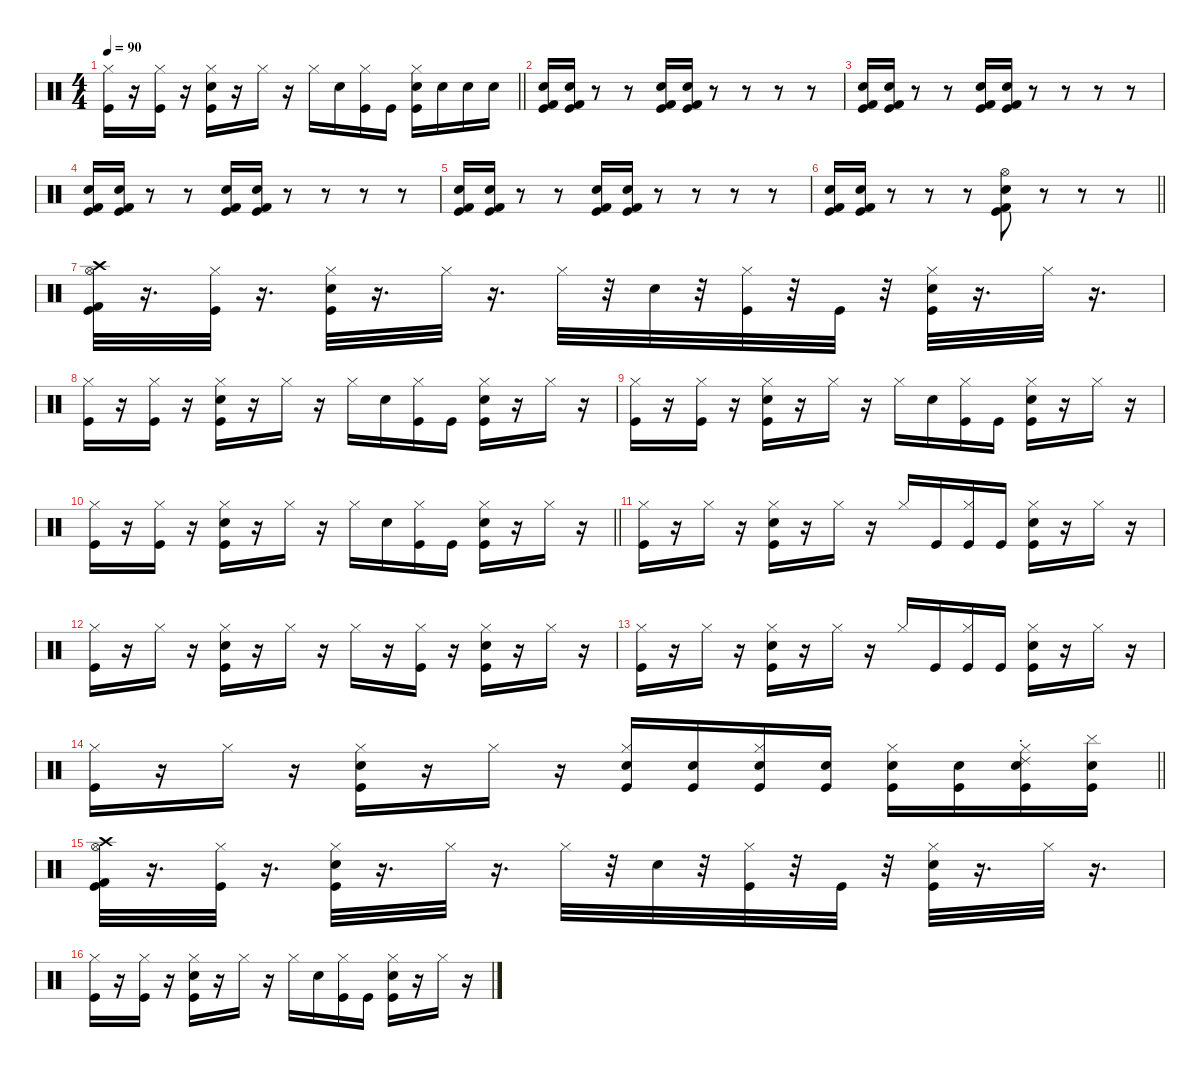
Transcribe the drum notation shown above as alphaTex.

\defaultSystemsLayout 4
\hideDynamics
\bracketExtendMode nobrackets
\singleTrackTrackNamePolicy hidden
\multiTrackTrackNamePolicy hidden
\otherSystemsTrackNameOrientation horizontal
\track ("Slagverk" "drm.") {instrument percussion}
\staff {score}
\articulation defaults
\ts (4 4)
\tempo 90
\clef neutral
\barLineRight lightlight
\ks c
("Kick (hit)" "Hi-Hat (closed)").16{dy f beam Down} r.16{beam Down} ("Kick (hit)" "Hi-Hat (closed)").16{beam Down} r.16{beam Down} ("Kick (hit)" "Hi-Hat (closed)" "Snare (hit) 2").16{beam Down} r.16{beam Down} "Hi-Hat (closed)".16{beam Down} r.16{beam Down} "Hi-Hat (closed)".16{beam Down} "Snare (hit) 2".16{beam Down} ("Kick (hit)" "Hi-Hat (closed)").16{beam Down} "Kick (hit)".16{beam Down} ("Kick (hit)" "Hi-Hat (closed)" "Snare (hit) 2").16{beam Down} "Snare (hit) 2".16{beam Down} "Snare (hit) 2".16{beam Down} "Snare (hit) 2".16{beam Down} |
("Snare (hit) 2" "Kick (hit)" "Kick (hit) 2").16{beam Up} ("Snare (hit) 2" "Kick (hit)" "Kick (hit) 2").16{beam Up} r.8{beam Up} r.8{beam Up} ("Snare (hit) 2" "Kick (hit)" "Kick (hit) 2").16{beam Up} ("Snare (hit) 2" "Kick (hit)" "Kick (hit) 2").16{beam Up} r.8{beam Up} r.8{beam Up} r.8{beam Up} r.8{beam Up} |
("Snare (hit) 2" "Kick (hit)" "Kick (hit) 2").16{beam Up} ("Snare (hit) 2" "Kick (hit)" "Kick (hit) 2").16{beam Up} r.8{beam Up} r.8{beam Up} ("Snare (hit) 2" "Kick (hit)" "Kick (hit) 2").16{beam Up} ("Snare (hit) 2" "Kick (hit)" "Kick (hit) 2").16{beam Up} r.8{beam Up} r.8{beam Up} r.8{beam Up} r.8{beam Up} |
("Snare (hit) 2" "Kick (hit)" "Kick (hit) 2").16{beam Up} ("Snare (hit) 2" "Kick (hit)" "Kick (hit) 2").16{beam Up} r.8{beam Up} r.8{beam Up} ("Snare (hit) 2" "Kick (hit)" "Kick (hit) 2").16{beam Up} ("Snare (hit) 2" "Kick (hit)" "Kick (hit) 2").16{beam Up} r.8{beam Up} r.8{beam Up} r.8{beam Up} r.8{beam Up} |
("Snare (hit) 2" "Kick (hit)" "Kick (hit) 2").16{beam Up} ("Snare (hit) 2" "Kick (hit)" "Kick (hit) 2").16{beam Up} r.8{beam Up} r.8{beam Up} ("Snare (hit) 2" "Kick (hit)" "Kick (hit) 2").16{beam Up} ("Snare (hit) 2" "Kick (hit)" "Kick (hit) 2").16{beam Up} r.8{beam Up} r.8{beam Up} r.8{beam Up} r.8{beam Up} |
\barLineRight lightlight
("Snare (hit) 2" "Kick (hit)" "Kick (hit) 2").16{beam Up} ("Snare (hit) 2" "Kick (hit)" "Kick (hit) 2").16{beam Up} r.8{beam Up} r.8{beam Up} r.8{beam Up} ("Hi-Hat (open)" "Kick (hit)" "Snare (hit) 2" "Kick (hit) 2").8{beam Down} r.8{beam Down} r.8{beam Down} r.8{beam Down} |
("Kick (hit)" "Hi-Hat (open)" "Crash high (hit)" "Kick (hit) 2").32{dy fff beam Down} r.16{d beam Down} ("Kick (hit)" "Hi-Hat (closed)").32{beam Down} r.16{d beam Down} ("Snare (hit) 2" "Kick (hit)" "Hi-Hat (closed)").32{beam Down} r.16{d beam Down} "Hi-Hat (closed)".32{beam Down} r.16{d beam Down} "Hi-Hat (closed)".32{dy f beam Down} r.32{beam Down} "Snare (hit) 2".32{beam Down} r.32{beam Down} ("Hi-Hat (closed)" "Kick (hit)").32{beam Down} r.32{beam Down} "Kick (hit)".32{beam Down} r.32{beam Down} ("Hi-Hat (closed)" "Snare (hit) 2" "Kick (hit)").32{beam Down} r.16{d beam Down} "Hi-Hat (closed)".32{beam Down} r.16{d beam Down} |
("Kick (hit)" "Hi-Hat (closed)").16{beam Down} r.16{beam Down} ("Kick (hit)" "Hi-Hat (closed)").16{beam Down} r.16{beam Down} ("Kick (hit)" "Hi-Hat (closed)" "Snare (hit) 2").16{beam Down} r.16{beam Down} "Hi-Hat (closed)".16{beam Down} r.16{beam Down} "Hi-Hat (closed)".16{beam Down} "Snare (hit) 2".16{beam Down} ("Kick (hit)" "Hi-Hat (closed)").16{beam Down} "Kick (hit)".16{beam Down} ("Kick (hit)" "Hi-Hat (closed)" "Snare (hit) 2").16{beam Down} r.16{beam Down} "Hi-Hat (closed)".16{beam Down} r.16{beam Down} |
("Kick (hit)" "Hi-Hat (closed)").16{beam Down} r.16{beam Down} ("Kick (hit)" "Hi-Hat (closed)").16{beam Down} r.16{beam Down} ("Kick (hit)" "Hi-Hat (closed)" "Snare (hit) 2").16{beam Down} r.16{beam Down} "Hi-Hat (closed)".16{beam Down} r.16{beam Down} "Hi-Hat (closed)".16{beam Down} "Snare (hit) 2".16{beam Down} ("Kick (hit)" "Hi-Hat (closed)").16{beam Down} "Kick (hit)".16{beam Down} ("Kick (hit)" "Hi-Hat (closed)" "Snare (hit) 2").16{beam Down} r.16{beam Down} "Hi-Hat (closed)".16{beam Down} r.16{beam Down} |
\barLineRight lightlight
("Kick (hit)" "Hi-Hat (closed)").16{beam Down} r.16{beam Down} ("Kick (hit)" "Hi-Hat (closed)").16{beam Down} r.16{beam Down} ("Kick (hit)" "Hi-Hat (closed)" "Snare (hit) 2").16{beam Down} r.16{beam Down} "Hi-Hat (closed)".16{beam Down} r.16{beam Down} "Hi-Hat (closed)".16{beam Down} "Snare (hit) 2".16{beam Down} ("Kick (hit)" "Hi-Hat (closed)").16{beam Down} "Kick (hit)".16{beam Down} ("Kick (hit)" "Hi-Hat (closed)" "Snare (hit) 2").16{beam Down} r.16{beam Down} "Hi-Hat (closed)".16{beam Down} r.16{beam Down} |
("Kick (hit)" "Hi-Hat (closed)").16{beam Down} r.16{beam Down} "Hi-Hat (closed)".16{beam Down} r.16{beam Down} ("Kick (hit)" "Hi-Hat (closed)" "Snare (hit) 2").16{beam Down} r.16{beam Down} "Hi-Hat (closed)".16{beam Down} r.16{beam Down} "Hi-Hat (closed)".16{beam Up} "Kick (hit)".16{beam Up} ("Kick (hit)" "Hi-Hat (closed)").16{beam Up} "Kick (hit)".16{beam Up} ("Kick (hit)" "Hi-Hat (closed)" "Snare (hit) 2").16{beam Down} r.16{beam Down} "Hi-Hat (closed)".16{beam Down} r.16{beam Down} |
("Kick (hit)" "Hi-Hat (closed)").16{beam Down} r.16{beam Down} "Hi-Hat (closed)".16{beam Down} r.16{beam Down} ("Kick (hit)" "Hi-Hat (closed)" "Snare (hit) 2").16{beam Down} r.16{beam Down} "Hi-Hat (closed)".16{beam Down} r.16{beam Down} "Hi-Hat (closed)".16{beam Down} r.16{beam Down} ("Kick (hit)" "Hi-Hat (closed)").16{beam Down} r.16{beam Down} ("Kick (hit)" "Hi-Hat (closed)" "Snare (hit) 2").16{beam Down} r.16{beam Down} "Hi-Hat (closed)".16{beam Down} r.16{beam Down} |
("Kick (hit)" "Hi-Hat (closed)").16{beam Down} r.16{beam Down} "Hi-Hat (closed)".16{beam Down} r.16{beam Down} ("Kick (hit)" "Hi-Hat (closed)" "Snare (hit) 2").16{beam Down} r.16{beam Down} "Hi-Hat (closed)".16{beam Down} r.16{beam Down} "Hi-Hat (closed)".16{beam Up} "Kick (hit)".16{beam Up} ("Kick (hit)" "Hi-Hat (closed)").16{beam Up} "Kick (hit)".16{beam Up} ("Kick (hit)" "Hi-Hat (closed)" "Snare (hit) 2").16{beam Down} r.16{beam Down} "Hi-Hat (closed)".16{beam Down} r.16{beam Down} |
\barLineRight lightlight
("Kick (hit)" "Hi-Hat (closed)").16{beam Down} r.16{beam Down} "Hi-Hat (closed)".16{beam Down} r.16{beam Down} ("Kick (hit)" "Hi-Hat (closed)" "Snare (hit) 2").16{beam Down} r.16{beam Down} "Hi-Hat (closed)".16{beam Down} r.16{beam Down} ("Kick (hit)" "Hi-Hat (closed)" "Snare (hit) 2").16{dy fff beam Up} ("Kick (hit)" "Snare (hit) 2").16{beam Up} ("Kick (hit)" "Hi-Hat (closed)" "Snare (hit) 2").16{beam Up} ("Kick (hit)" "Snare (hit) 2").16{beam Up} ("Kick (hit)" "Hi-Hat (closed)" "Snare (hit) 2").16{beam Down} ("Kick (hit)" "Snare (hit) 2").16{beam Down} ("Kick (hit)" "Hi-Hat (closed)" "Snare (hit) 2" "Ride (choke) 2").16{beam Down} ("Kick (hit)" "Snare (hit) 2" "Cymbal (hit)").16{beam Down} |
("Kick (hit)" "Hi-Hat (open)" "Crash high (hit)" "Kick (hit) 2").32{beam Down} r.16{d beam Down} ("Kick (hit)" "Hi-Hat (closed)").32{beam Down} r.16{d beam Down} ("Snare (hit) 2" "Kick (hit)" "Hi-Hat (closed)").32{beam Down} r.16{d beam Down} "Hi-Hat (closed)".32{beam Down} r.16{d beam Down} "Hi-Hat (closed)".32{dy f beam Down} r.32{beam Down} "Snare (hit) 2".32{beam Down} r.32{beam Down} ("Hi-Hat (closed)" "Kick (hit)").32{beam Down} r.32{beam Down} "Kick (hit)".32{beam Down} r.32{beam Down} ("Hi-Hat (closed)" "Snare (hit) 2" "Kick (hit)").32{beam Down} r.16{d beam Down} "Hi-Hat (closed)".32{beam Down} r.16{d beam Down} |
("Kick (hit)" "Hi-Hat (closed)").16{beam Down} r.16{beam Down} ("Kick (hit)" "Hi-Hat (closed)").16{beam Down} r.16{beam Down} ("Kick (hit)" "Hi-Hat (closed)" "Snare (hit) 2").16{beam Down} r.16{beam Down} "Hi-Hat (closed)".16{beam Down} r.16{beam Down} "Hi-Hat (closed)".16{beam Down} "Snare (hit) 2".16{beam Down} ("Kick (hit)" "Hi-Hat (closed)").16{beam Down} "Kick (hit)".16{beam Down} ("Kick (hit)" "Hi-Hat (closed)" "Snare (hit) 2").16{beam Down} r.16{beam Down} "Hi-Hat (closed)".16{beam Down} r.16{beam Down}
